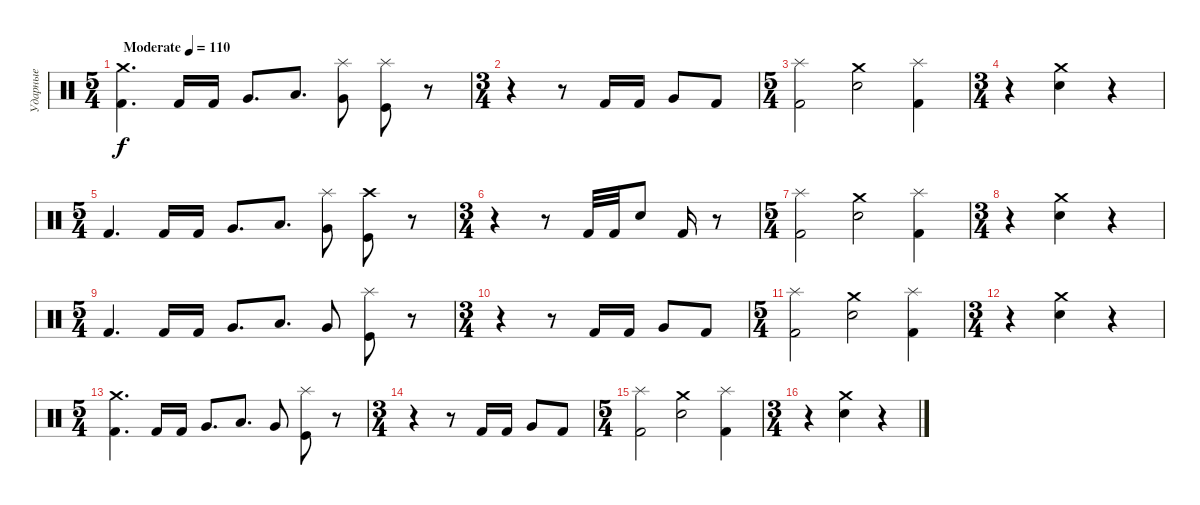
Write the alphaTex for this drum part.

\track ("Ударные" "Ударные") {instrument percussion}
\staff {score}
\articulation defaults
\ts (5 4)
\tempo (110 "Moderate")
\clef neutral
\ks c
("Crash medium (hit)" "Kick (hit) 2").4{d dy f} "Kick (hit) 2".16 "Kick (hit) 2".16 "Very Low Tom (hit)".8{d} "Low Tom (hit)".8{d} ("Splash (hit)" "Very Low Tom (hit)").8 ("Splash (hit)" "Kick (hit)").8 r.8 |
\ts (3 4)
r.4 r.8 "Kick (hit) 2".16 "Kick (hit) 2".16 "Very Low Tom (hit)".8 "Kick (hit) 2".8 |
\ts (5 4)
("Splash (hit)" "Kick (hit) 2").2 ("Crash medium (hit)" "Electric Snare (hit)").2 ("Splash (hit)" "Kick (hit) 2").4 |
\ts (3 4)
r.4 ("Crash medium (hit)" "Electric Snare (hit)").4 r.4 |
\ts (5 4)
"Kick (hit) 2".4{d} "Kick (hit) 2".16 "Kick (hit) 2".16 "Very Low Tom (hit)".8{d} "Low Tom (hit)".8{d} ("Splash (hit)" "Very Low Tom (hit)").8 ("Crash high (hit)" "Kick (hit)").8 r.8 |
\ts (3 4)
r.4 r.8 "Kick (hit) 2".32 "Kick (hit) 2".32 "Electric Snare (hit)".8 "Kick (hit) 2".16 r.8 |
\ts (5 4)
("Splash (hit)" "Kick (hit) 2").2 ("Crash medium (hit)" "Electric Snare (hit)").2 ("Splash (hit)" "Kick (hit) 2").4 |
\ts (3 4)
r.4 ("Crash medium (hit)" "Electric Snare (hit)").4 r.4 |
\ts (5 4)
"Kick (hit) 2".4{d} "Kick (hit) 2".16 "Kick (hit) 2".16 "Very Low Tom (hit)".8{d} "Low Tom (hit)".8{d} "Very Low Tom (hit)".8 ("Splash (hit)" "Kick (hit)").8 r.8 |
\ts (3 4)
r.4 r.8 "Kick (hit) 2".16 "Kick (hit) 2".16 "Very Low Tom (hit)".8 "Kick (hit) 2".8 |
\ts (5 4)
("Splash (hit)" "Kick (hit) 2").2 ("Crash medium (hit)" "Electric Snare (hit)").2 ("Splash (hit)" "Kick (hit) 2").4 |
\ts (3 4)
r.4 ("Crash medium (hit)" "Electric Snare (hit)").4 r.4 |
\ts (5 4)
("Crash medium (hit)" "Kick (hit) 2").4{d} "Kick (hit) 2".16 "Kick (hit) 2".16 "Very Low Tom (hit)".8{d} "Low Tom (hit)".8{d} "Very Low Tom (hit)".8 ("Splash (hit)" "Kick (hit)").8 r.8 |
\ts (3 4)
r.4 r.8 "Kick (hit) 2".16 "Kick (hit) 2".16 "Very Low Tom (hit)".8 "Kick (hit) 2".8 |
\ts (5 4)
("Splash (hit)" "Kick (hit) 2").2 ("Crash medium (hit)" "Electric Snare (hit)").2 ("Splash (hit)" "Kick (hit) 2").4 |
\ts (3 4)
r.4 ("Crash medium (hit)" "Electric Snare (hit)").4 r.4
